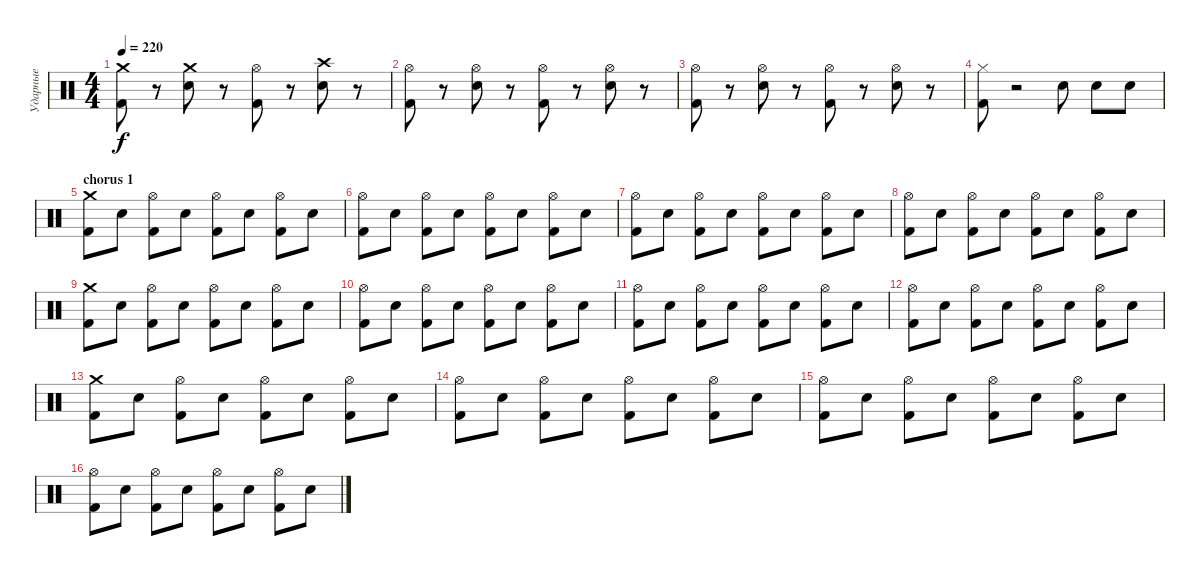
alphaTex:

\track ("Ударные" "Ударные") {instrument percussion}
\staff {score}
\articulation defaults
\ts (4 4)
\tempo 220
\clef neutral
\ks c
("Crash medium (hit)" "Kick (hit) 2").8{dy f} r.8 ("Crash medium (hit)" "Electric Snare (hit)").8 r.8 ("Hi-Hat (open)" "Kick (hit) 2").8 r.8 ("Crash high (hit)" "Electric Snare (hit)").8 r.8 |
("Hi-Hat (open)" "Kick (hit) 2").8 r.8 ("Hi-Hat (open)" "Electric Snare (hit)").8 r.8 ("Hi-Hat (open)" "Kick (hit) 2").8 r.8 ("Hi-Hat (open)" "Electric Snare (hit)").8 r.8 |
("Hi-Hat (open)" "Kick (hit) 2").8 r.8 ("Hi-Hat (open)" "Electric Snare (hit)").8 r.8 ("Hi-Hat (open)" "Kick (hit) 2").8 r.8 ("Hi-Hat (open)" "Electric Snare (hit)").8 r.8 |
("Hi-Hat (closed)"{pm} "Kick (hit) 2").8 r.2 "Electric Snare (hit)".8 "Electric Snare (hit)".8 "Electric Snare (hit)".8 |
\section ("" "chorus 1")
("Crash medium (hit)" "Kick (hit) 2").8 "Electric Snare (hit)".8 ("Hi-Hat (open)" "Kick (hit) 2").8 "Electric Snare (hit)".8 ("Hi-Hat (open)" "Kick (hit) 2").8 "Electric Snare (hit)".8 ("Hi-Hat (open)" "Kick (hit) 2").8 "Electric Snare (hit)".8 |
("Hi-Hat (open)" "Kick (hit) 2").8 "Electric Snare (hit)".8 ("Hi-Hat (open)" "Kick (hit) 2").8 "Electric Snare (hit)".8 ("Hi-Hat (open)" "Kick (hit) 2").8 "Electric Snare (hit)".8 ("Hi-Hat (open)" "Kick (hit) 2").8 "Electric Snare (hit)".8 |
("Hi-Hat (open)" "Kick (hit) 2").8 "Electric Snare (hit)".8 ("Hi-Hat (open)" "Kick (hit) 2").8 "Electric Snare (hit)".8 ("Hi-Hat (open)" "Kick (hit) 2").8 "Electric Snare (hit)".8 ("Hi-Hat (open)" "Kick (hit) 2").8 "Electric Snare (hit)".8 |
("Hi-Hat (open)" "Kick (hit) 2").8 "Electric Snare (hit)".8 ("Hi-Hat (open)" "Kick (hit) 2").8 "Electric Snare (hit)".8 ("Hi-Hat (open)" "Kick (hit) 2").8 "Electric Snare (hit)".8 ("Hi-Hat (open)" "Kick (hit) 2").8 "Electric Snare (hit)".8 |
("Crash medium (hit)" "Kick (hit) 2").8 "Electric Snare (hit)".8 ("Hi-Hat (open)" "Kick (hit) 2").8 "Electric Snare (hit)".8 ("Hi-Hat (open)" "Kick (hit) 2").8 "Electric Snare (hit)".8 ("Hi-Hat (open)" "Kick (hit) 2").8 "Electric Snare (hit)".8 |
("Hi-Hat (open)" "Kick (hit) 2").8 "Electric Snare (hit)".8 ("Hi-Hat (open)" "Kick (hit) 2").8 "Electric Snare (hit)".8 ("Hi-Hat (open)" "Kick (hit) 2").8 "Electric Snare (hit)".8 ("Hi-Hat (open)" "Kick (hit) 2").8 "Electric Snare (hit)".8 |
("Hi-Hat (open)" "Kick (hit) 2").8 "Electric Snare (hit)".8 ("Hi-Hat (open)" "Kick (hit) 2").8 "Electric Snare (hit)".8 ("Hi-Hat (open)" "Kick (hit) 2").8 "Electric Snare (hit)".8 ("Hi-Hat (open)" "Kick (hit) 2").8 "Electric Snare (hit)".8 |
("Hi-Hat (open)" "Kick (hit) 2").8 "Electric Snare (hit)".8 ("Hi-Hat (open)" "Kick (hit) 2").8 "Electric Snare (hit)".8 ("Hi-Hat (open)" "Kick (hit) 2").8 "Electric Snare (hit)".8 ("Hi-Hat (open)" "Kick (hit) 2").8 "Electric Snare (hit)".8 |
("Crash medium (hit)" "Kick (hit) 2").8 "Electric Snare (hit)".8 ("Hi-Hat (open)" "Kick (hit) 2").8 "Electric Snare (hit)".8 ("Hi-Hat (open)" "Kick (hit) 2").8 "Electric Snare (hit)".8 ("Hi-Hat (open)" "Kick (hit) 2").8 "Electric Snare (hit)".8 |
("Hi-Hat (open)" "Kick (hit) 2").8 "Electric Snare (hit)".8 ("Hi-Hat (open)" "Kick (hit) 2").8 "Electric Snare (hit)".8 ("Hi-Hat (open)" "Kick (hit) 2").8 "Electric Snare (hit)".8 ("Hi-Hat (open)" "Kick (hit) 2").8 "Electric Snare (hit)".8 |
("Hi-Hat (open)" "Kick (hit) 2").8 "Electric Snare (hit)".8 ("Hi-Hat (open)" "Kick (hit) 2").8 "Electric Snare (hit)".8 ("Hi-Hat (open)" "Kick (hit) 2").8 "Electric Snare (hit)".8 ("Hi-Hat (open)" "Kick (hit) 2").8 "Electric Snare (hit)".8 |
("Hi-Hat (open)" "Kick (hit) 2").8 "Electric Snare (hit)".8 ("Hi-Hat (open)" "Kick (hit) 2").8 "Electric Snare (hit)".8 ("Hi-Hat (open)" "Kick (hit) 2").8 "Electric Snare (hit)".8 ("Hi-Hat (open)" "Kick (hit) 2").8 "Electric Snare (hit)".8
